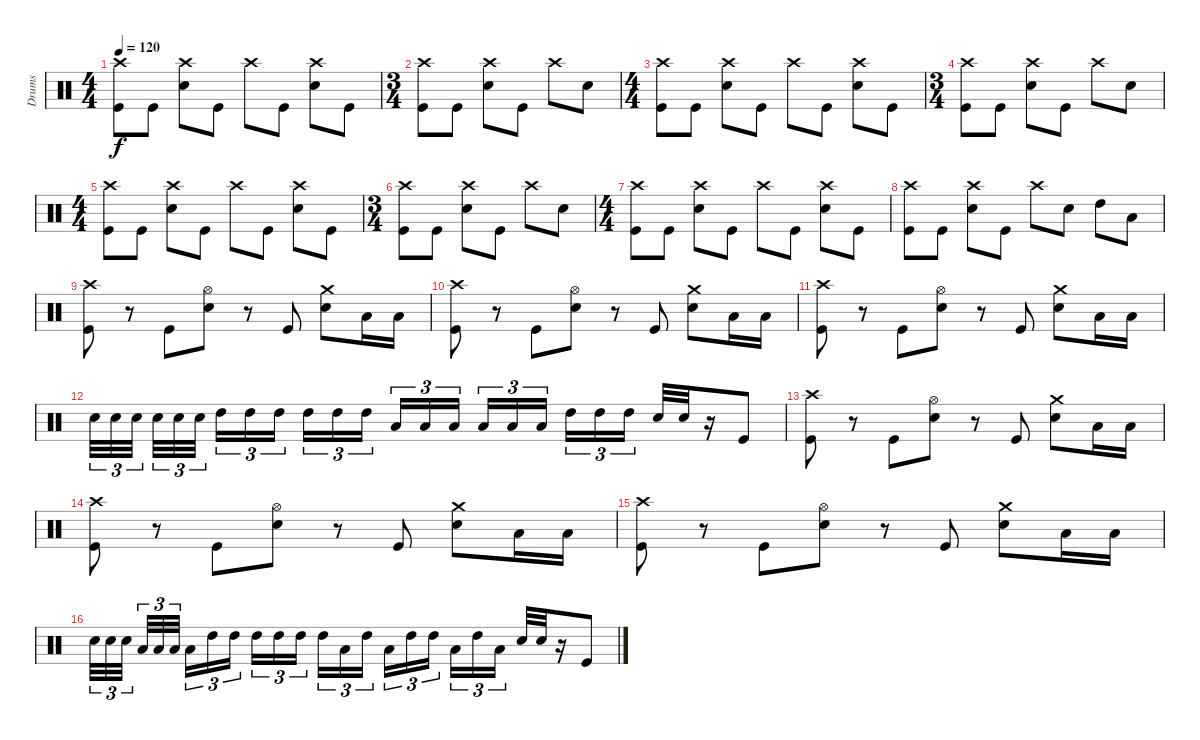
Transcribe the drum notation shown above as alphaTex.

\track ("Drums" "Drums") {instrument percussion}
\staff {score}
\articulation defaults
\ts (4 4)
\tempo 120
\clef neutral
\ks c
("Kick (hit)" "Crash high (hit)").8{dy f} "Kick (hit)".8 ("Snare (hit) 2" "Crash high (hit)").8 "Kick (hit)".8 "Crash high (hit)".8 "Kick (hit)".8 ("Snare (hit) 2" "Crash high (hit)").8 "Kick (hit)".8 |
\ts (3 4)
("Kick (hit)" "Crash high (hit)").8 "Kick (hit)".8 ("Snare (hit) 2" "Crash high (hit)").8 "Kick (hit)".8 "Crash high (hit)".8 "Snare (hit) 2".8 |
\ts (4 4)
("Kick (hit)" "Crash high (hit)").8 "Kick (hit)".8 ("Snare (hit) 2" "Crash high (hit)").8 "Kick (hit)".8 "Crash high (hit)".8 "Kick (hit)".8 ("Snare (hit) 2" "Crash high (hit)").8 "Kick (hit)".8 |
\ts (3 4)
("Kick (hit)" "Crash high (hit)").8 "Kick (hit)".8 ("Snare (hit) 2" "Crash high (hit)").8 "Kick (hit)".8 "Crash high (hit)".8 "Snare (hit) 2".8 |
\ts (4 4)
("Kick (hit)" "Crash high (hit)").8 "Kick (hit)".8 ("Snare (hit) 2" "Crash high (hit)").8 "Kick (hit)".8 "Crash high (hit)".8 "Kick (hit)".8 ("Snare (hit) 2" "Crash high (hit)").8 "Kick (hit)".8 |
\ts (3 4)
("Kick (hit)" "Crash high (hit)").8 "Kick (hit)".8 ("Snare (hit) 2" "Crash high (hit)").8 "Kick (hit)".8 "Crash high (hit)".8 "Snare (hit) 2".8 |
\ts (4 4)
("Kick (hit)" "Crash high (hit)").8 "Kick (hit)".8 ("Snare (hit) 2" "Crash high (hit)").8 "Kick (hit)".8 "Crash high (hit)".8 "Kick (hit)".8 ("Snare (hit) 2" "Crash high (hit)").8 "Kick (hit)".8 |
("Kick (hit)" "Crash high (hit)").8 "Kick (hit)".8 ("Snare (hit) 2" "Crash high (hit)").8 "Kick (hit)".8 "Crash high (hit)".8 "Snare (hit) 2".8 "High Tom (hit)".8 "Low Tom (hit)".8 |
("Kick (hit)" "Crash high (hit)").8 r.8 "Kick (hit)".8 ("Snare (hit) 2" "Hi-Hat (open)").8 r.8 "Kick (hit)".8 ("Snare (hit) 2" "Crash medium (hit)").8 "Low Tom (hit)".16 "Low Tom (hit)".16 |
("Kick (hit)" "Crash high (hit)").8 r.8 "Kick (hit)".8 ("Snare (hit) 2" "Hi-Hat (open)").8 r.8 "Kick (hit)".8 ("Snare (hit) 2" "Crash medium (hit)").8 "Low Tom (hit)".16 "Low Tom (hit)".16 |
("Kick (hit)" "Crash high (hit)").8 r.8 "Kick (hit)".8 ("Snare (hit) 2" "Hi-Hat (open)").8 r.8 "Kick (hit)".8 ("Snare (hit) 2" "Crash medium (hit)").8 "Low Tom (hit)".16 "Low Tom (hit)".16 |
"Snare (hit) 2".32{tu (3 2)} "Snare (hit) 2".32{tu (3 2)} "Snare (hit) 2".32{tu (3 2)} "Snare (hit) 2".32{tu (3 2)} "Snare (hit) 2".32{tu (3 2)} "Snare (hit) 2".32{tu (3 2)} "High Tom (hit)".16{tu (3 2)} "High Tom (hit)".16{tu (3 2)} "High Tom (hit)".16{tu (3 2)} "High Tom (hit)".16{tu (3 2)} "High Tom (hit)".16{tu (3 2)} "High Tom (hit)".16{tu (3 2)} "Low Tom (hit)".16{tu (3 2)} "Low Tom (hit)".16{tu (3 2)} "Low Tom (hit)".16{tu (3 2)} "Low Tom (hit)".16{tu (3 2)} "Low Tom (hit)".16{tu (3 2)} "Low Tom (hit)".16{tu (3 2)} "High Tom (hit)".16{tu (3 2)} "High Tom (hit)".16{tu (3 2)} "High Tom (hit)".16{tu (3 2)} "Snare (hit) 2".32 "Snare (hit) 2".32 r.16 "Kick (hit)".8 |
("Kick (hit)" "Crash high (hit)").8 r.8 "Kick (hit)".8 ("Snare (hit) 2" "Hi-Hat (open)").8 r.8 "Kick (hit)".8 ("Snare (hit) 2" "Crash medium (hit)").8 "Low Tom (hit)".16 "Low Tom (hit)".16 |
("Kick (hit)" "Crash high (hit)").8 r.8 "Kick (hit)".8 ("Snare (hit) 2" "Hi-Hat (open)").8 r.8 "Kick (hit)".8 ("Snare (hit) 2" "Crash medium (hit)").8 "Low Tom (hit)".16 "Low Tom (hit)".16 |
("Kick (hit)" "Crash high (hit)").8 r.8 "Kick (hit)".8 ("Snare (hit) 2" "Hi-Hat (open)").8 r.8 "Kick (hit)".8 ("Snare (hit) 2" "Crash medium (hit)").8 "Low Tom (hit)".16 "Low Tom (hit)".16 |
"Snare (hit) 2".32{tu (3 2)} "Snare (hit) 2".32{tu (3 2)} "Snare (hit) 2".32{tu (3 2)} "Low Tom (hit)".32{tu (3 2)} "Low Tom (hit)".32{tu (3 2)} "Low Tom (hit)".32{tu (3 2)} "Low Tom (hit)".16{tu (3 2)} "High Tom (hit)".16{tu (3 2)} "High Tom (hit)".16{tu (3 2)} "High Tom (hit)".16{tu (3 2)} "High Tom (hit)".16{tu (3 2)} "High Tom (hit)".16{tu (3 2)} "High Tom (hit)".16{tu (3 2)} "Low Tom (hit)".16{tu (3 2)} "High Tom (hit)".16{tu (3 2)} "Low Tom (hit)".16{tu (3 2)} "High Tom (hit)".16{tu (3 2)} "High Tom (hit)".16{tu (3 2)} "Low Tom (hit)".16{tu (3 2)} "High Tom (hit)".16{tu (3 2)} "Low Tom (hit)".16{tu (3 2)} "Snare (hit) 2".32 "Snare (hit) 2".32 r.16 "Kick (hit)".8
